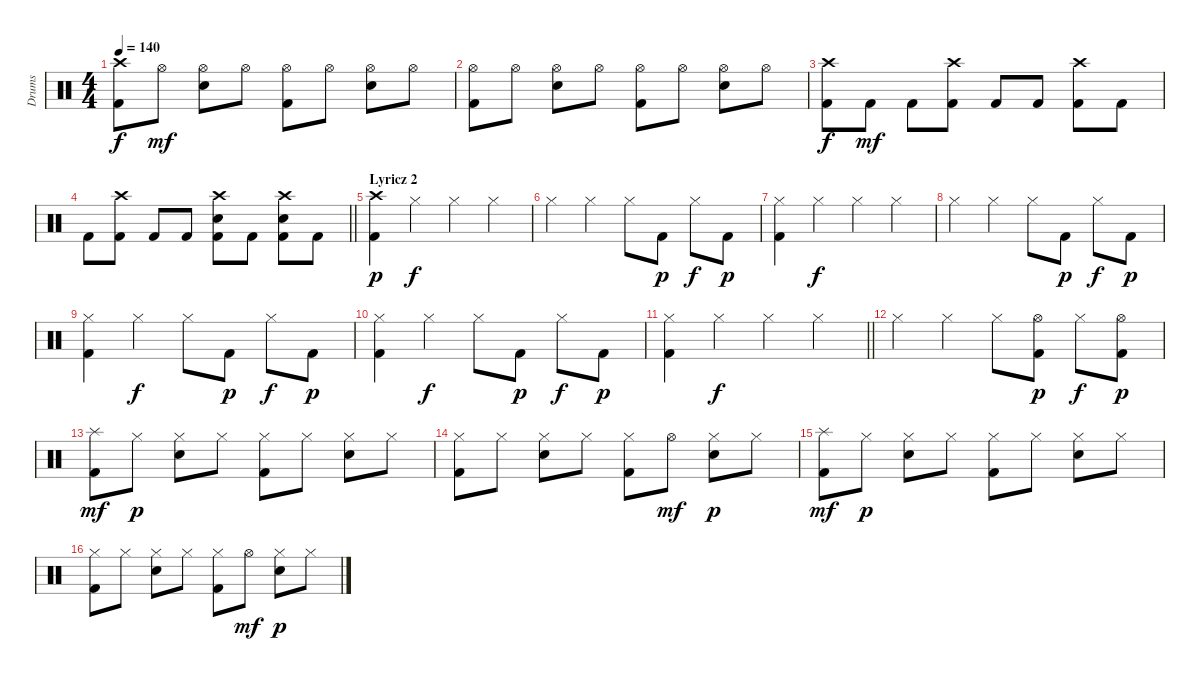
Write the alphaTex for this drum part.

\track ("Drums" "Drums") {instrument percussion}
\staff {score}
\articulation defaults
\ts (4 4)
\tempo 140
\clef neutral
\ks c
("Crash high (hit)" "Kick (hit) 2").8{dy f} "Hi-Hat (open)".8{dy mf} ("Hi-Hat (open)" "Snare (hit) 2").8 "Hi-Hat (open)".8 ("Hi-Hat (open)" "Kick (hit) 2").8 "Hi-Hat (open)".8 ("Hi-Hat (open)" "Snare (hit) 2").8 "Hi-Hat (open)".8 |
("Hi-Hat (open)" "Kick (hit) 2").8 "Hi-Hat (open)".8 ("Hi-Hat (open)" "Snare (hit) 2").8 "Hi-Hat (open)".8 ("Hi-Hat (open)" "Kick (hit) 2").8 "Hi-Hat (open)".8 ("Hi-Hat (open)" "Snare (hit) 2").8 "Hi-Hat (open)".8 |
("Crash high (hit)" "Kick (hit) 2").8{dy f} "Kick (hit) 2".8{dy mf} "Kick (hit) 2".8 ("Crash high (hit)" "Kick (hit) 2").8 "Kick (hit) 2".8 "Kick (hit) 2".8 ("Crash high (hit)" "Kick (hit) 2").8 "Kick (hit) 2".8 |
\barLineRight lightlight "Kick (hit) 2".8
("Crash high (hit)" "Kick (hit) 2").8 "Kick (hit) 2".8 "Kick (hit) 2".8 ("Crash high (hit)" "Snare (hit) 2" "Kick (hit) 2").8 "Kick (hit) 2".8 ("Crash high (hit)" "Snare (hit) 2" "Kick (hit) 2").8 "Kick (hit) 2".8 |
\section ("" "Lyricz 2")
("Crash high (hit)" "Kick (hit) 2").4{dy p} "Hi-Hat (closed)".4{dy f} "Hi-Hat (closed)".4 "Hi-Hat (closed)".4 |
"Hi-Hat (closed)".4 "Hi-Hat (closed)".4 "Hi-Hat (closed)".8 "Kick (hit) 2".8{dy p} "Hi-Hat (closed)".8{dy f} "Kick (hit) 2".8{dy p} |
("Hi-Hat (closed)" "Kick (hit) 2").4 "Hi-Hat (closed)".4{dy f} "Hi-Hat (closed)".4 "Hi-Hat (closed)".4 |
"Hi-Hat (closed)".4 "Hi-Hat (closed)".4 "Hi-Hat (closed)".8 "Kick (hit) 2".8{dy p} "Hi-Hat (closed)".8{dy f} "Kick (hit) 2".8{dy p} |
("Hi-Hat (closed)" "Kick (hit) 2").4 "Hi-Hat (closed)".4{dy f} "Hi-Hat (closed)".8 "Kick (hit) 2".8{dy p} "Hi-Hat (closed)".8{dy f} "Kick (hit) 2".8{dy p} |
("Hi-Hat (closed)" "Kick (hit) 2").4 "Hi-Hat (closed)".4{dy f} "Hi-Hat (closed)".8 "Kick (hit) 2".8{dy p} "Hi-Hat (closed)".8{dy f} "Kick (hit) 2".8{dy p} |
\barLineRight lightlight
("Hi-Hat (closed)" "Kick (hit) 2").4 "Hi-Hat (closed)".4{dy f} "Hi-Hat (closed)".4 "Hi-Hat (closed)".4 |
"Hi-Hat (closed)".4 "Hi-Hat (closed)".4 "Hi-Hat (closed)".8 ("Hi-Hat (open)" "Kick (hit) 2").8{dy p} "Hi-Hat (closed)".8{dy f} ("Hi-Hat (open)" "Kick (hit) 2").8{dy p} |
("Splash (hit)" "Kick (hit) 2").8{dy mf} "Hi-Hat (closed)".8{dy p} ("Hi-Hat (closed)" "Snare (hit) 2").8 "Hi-Hat (closed)".8 ("Hi-Hat (closed)" "Kick (hit) 2").8 "Hi-Hat (closed)".8 ("Hi-Hat (closed)" "Snare (hit) 2").8 "Hi-Hat (closed)".8 |
("Hi-Hat (closed)" "Kick (hit) 2").8 "Hi-Hat (closed)".8 ("Hi-Hat (closed)" "Snare (hit) 2").8 "Hi-Hat (closed)".8 ("Hi-Hat (closed)" "Kick (hit) 2").8 "Hi-Hat (open)".8{dy mf} ("Hi-Hat (closed)" "Snare (hit) 2").8{dy p} "Hi-Hat (closed)".8 |
("Splash (hit)" "Kick (hit) 2").8{dy mf} "Hi-Hat (closed)".8{dy p} ("Hi-Hat (closed)" "Snare (hit) 2").8 "Hi-Hat (closed)".8 ("Hi-Hat (closed)" "Kick (hit) 2").8 "Hi-Hat (closed)".8 ("Hi-Hat (closed)" "Snare (hit) 2").8 "Hi-Hat (closed)".8 |
("Hi-Hat (closed)" "Kick (hit) 2").8 "Hi-Hat (closed)".8 ("Hi-Hat (closed)" "Snare (hit) 2").8 "Hi-Hat (closed)".8 ("Hi-Hat (closed)" "Kick (hit) 2").8 "Hi-Hat (open)".8{dy mf} ("Hi-Hat (closed)" "Snare (hit) 2").8{dy p} "Hi-Hat (closed)".8
